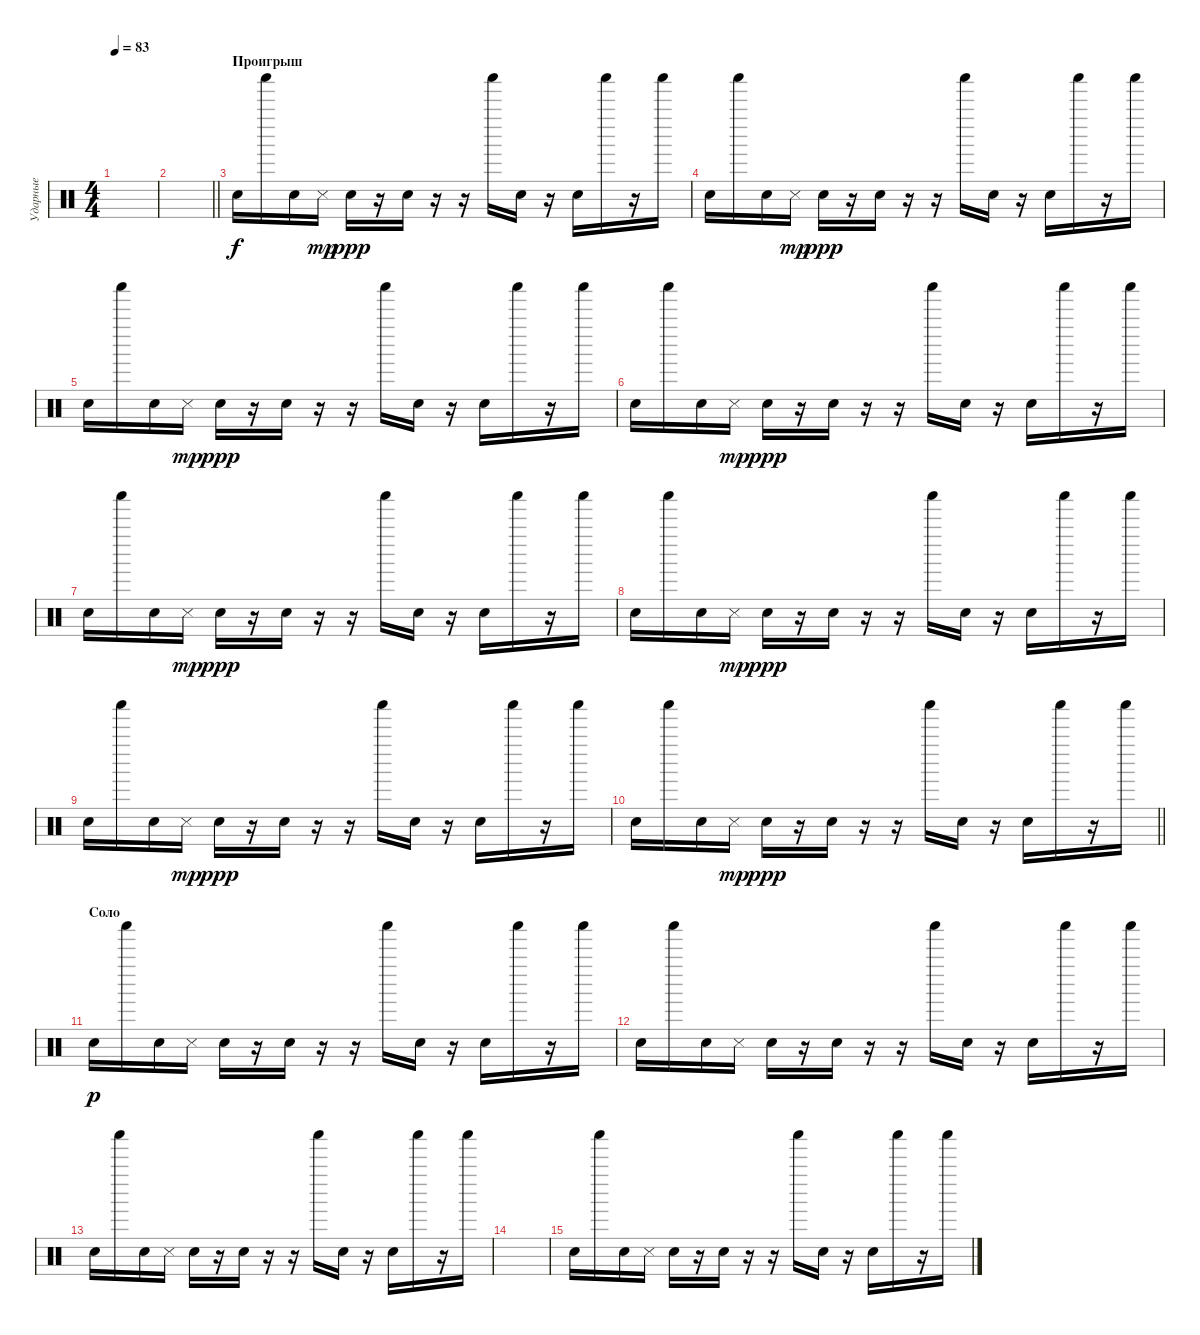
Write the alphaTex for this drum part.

\track ("Ударные" "Ударные") {instrument percussion}
\staff {score}
\articulation defaults
\ts (4 4)
\tempo 83
\clef neutral
\ks c
|
\barLineRight lightlight
|
\section ("" "Проигрыш")
"Snare (hit)".16 "Shaker (hit)".16 "Snare (hit)".16 "Snare (side stick) 3".16{dy mp} "Snare (hit)".16{dy ppp} r.16 "Snare (hit)".16 r.16 r.16 "Shaker (hit)".16 "Snare (hit)".16 r.16 "Snare (hit)".16 "Shaker (hit)".16 r.16 "Shaker (hit)".16 |
"Snare (hit)".16 "Shaker (hit)".16 "Snare (hit)".16 "Snare (side stick) 3".16{dy mp} "Snare (hit)".16{dy ppp} r.16 "Snare (hit)".16 r.16 r.16 "Shaker (hit)".16 "Snare (hit)".16 r.16 "Snare (hit)".16 "Shaker (hit)".16 r.16 "Shaker (hit)".16 |
"Snare (hit)".16 "Shaker (hit)".16 "Snare (hit)".16 "Snare (side stick) 3".16{dy mp} "Snare (hit)".16{dy ppp} r.16 "Snare (hit)".16 r.16 r.16 "Shaker (hit)".16 "Snare (hit)".16 r.16 "Snare (hit)".16 "Shaker (hit)".16 r.16 "Shaker (hit)".16 |
"Snare (hit)".16 "Shaker (hit)".16 "Snare (hit)".16 "Snare (side stick) 3".16{dy mp} "Snare (hit)".16{dy ppp} r.16 "Snare (hit)".16 r.16 r.16 "Shaker (hit)".16 "Snare (hit)".16 r.16 "Snare (hit)".16 "Shaker (hit)".16 r.16 "Shaker (hit)".16 |
"Snare (hit)".16 "Shaker (hit)".16 "Snare (hit)".16 "Snare (side stick) 3".16{dy mp} "Snare (hit)".16{dy ppp} r.16 "Snare (hit)".16 r.16 r.16 "Shaker (hit)".16 "Snare (hit)".16 r.16 "Snare (hit)".16 "Shaker (hit)".16 r.16 "Shaker (hit)".16 |
"Snare (hit)".16 "Shaker (hit)".16 "Snare (hit)".16 "Snare (side stick) 3".16{dy mp} "Snare (hit)".16{dy ppp} r.16 "Snare (hit)".16 r.16 r.16 "Shaker (hit)".16 "Snare (hit)".16 r.16 "Snare (hit)".16 "Shaker (hit)".16 r.16 "Shaker (hit)".16 |
"Snare (hit)".16 "Shaker (hit)".16 "Snare (hit)".16 "Snare (side stick) 3".16{dy mp} "Snare (hit)".16{dy ppp} r.16 "Snare (hit)".16 r.16 r.16 "Shaker (hit)".16 "Snare (hit)".16 r.16 "Snare (hit)".16 "Shaker (hit)".16 r.16 "Shaker (hit)".16 |
\barLineRight lightlight "Snare (hit)".16 "Shaker (hit)".16 "Snare (hit)".16 "Snare (side stick) 3".16{dy mp} "Snare (hit)".16{dy ppp}
r.16 "Snare (hit)".16 r.16 r.16 "Shaker (hit)".16 "Snare (hit)".16 r.16 "Snare (hit)".16 "Shaker (hit)".16 r.16 "Shaker (hit)".16 |
\section ("" "Соло")
"Snare (hit)".16{dy p} "Shaker (hit)".16 "Snare (hit)".16 "Snare (side stick) 3".16 "Snare (hit)".16 r.16 "Snare (hit)".16 r.16 r.16 "Shaker (hit)".16 "Snare (hit)".16 r.16 "Snare (hit)".16 "Shaker (hit)".16 r.16 "Shaker (hit)".16 |
"Snare (hit)".16 "Shaker (hit)".16 "Snare (hit)".16 "Snare (side stick) 3".16 "Snare (hit)".16 r.16 "Snare (hit)".16 r.16 r.16 "Shaker (hit)".16 "Snare (hit)".16 r.16 "Snare (hit)".16 "Shaker (hit)".16 r.16 "Shaker (hit)".16 |
"Snare (hit)".16 "Shaker (hit)".16 "Snare (hit)".16 "Snare (side stick) 3".16 "Snare (hit)".16 r.16 "Snare (hit)".16 r.16 r.16 "Shaker (hit)".16 "Snare (hit)".16 r.16 "Snare (hit)".16 "Shaker (hit)".16 r.16 "Shaker (hit)".16 |
|
"Snare (hit)".16 "Shaker (hit)".16 "Snare (hit)".16 "Snare (side stick) 3".16 "Snare (hit)".16 r.16 "Snare (hit)".16 r.16 r.16 "Shaker (hit)".16 "Snare (hit)".16 r.16 "Snare (hit)".16 "Shaker (hit)".16 r.16 "Shaker (hit)".16
